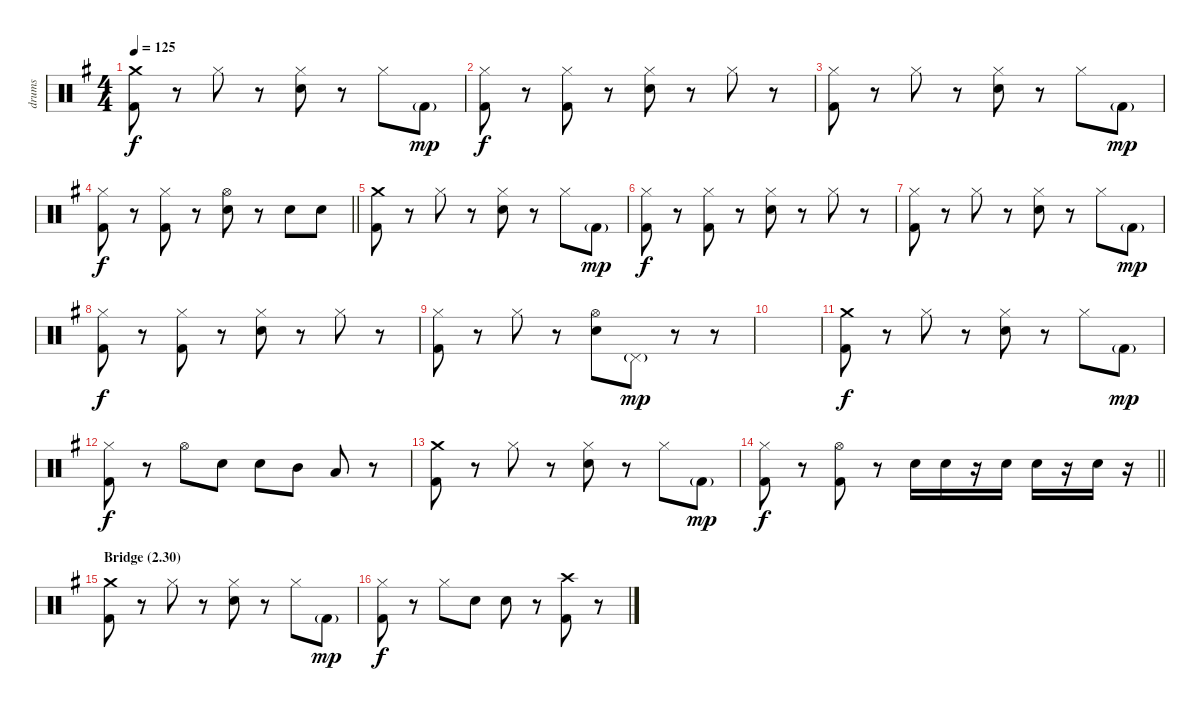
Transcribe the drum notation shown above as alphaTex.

\track ("drums" "drums") {instrument percussion}
\staff {score}
\articulation defaults
\ts (4 4)
\tempo 125
\clef neutral
\ks g
("Crash medium (hit)" "Kick (hit) 2").8{dy f} r.8 "Hi-Hat (closed)".8 r.8 ("Hi-Hat (closed)" "Electric Snare (hit)").8 r.8 "Hi-Hat (closed)".8 "Kick (hit) 2"{g}.8{dy mp} |
("Hi-Hat (closed)" "Kick (hit) 2").8{dy f} r.8 ("Hi-Hat (closed)" "Kick (hit) 2").8 r.8 ("Hi-Hat (closed)" "Electric Snare (hit)").8 r.8 "Hi-Hat (closed)".8 r.8 |
("Hi-Hat (closed)" "Kick (hit) 2").8 r.8 "Hi-Hat (closed)".8 r.8 ("Hi-Hat (closed)" "Electric Snare (hit)").8 r.8 "Hi-Hat (closed)".8 "Kick (hit) 2"{g}.8{dy mp} |
\barLineRight lightlight
("Hi-Hat (closed)" "Kick (hit) 2").8{dy f} r.8 ("Hi-Hat (closed)" "Kick (hit) 2").8 r.8 ("Hi-Hat (open)" "Electric Snare (hit)").8 r.8 "Electric Snare (hit)".8 "Electric Snare (hit)".8 |
("Crash medium (hit)" "Kick (hit) 2").8 r.8 "Hi-Hat (closed)".8 r.8 ("Hi-Hat (closed)" "Electric Snare (hit)").8 r.8 "Hi-Hat (closed)".8 "Kick (hit) 2"{g}.8{dy mp} |
("Hi-Hat (closed)" "Kick (hit) 2").8{dy f} r.8 ("Hi-Hat (closed)" "Kick (hit) 2").8 r.8 ("Hi-Hat (closed)" "Electric Snare (hit)").8 r.8 "Hi-Hat (closed)".8 r.8 |
("Hi-Hat (closed)" "Kick (hit) 2").8 r.8 "Hi-Hat (closed)".8 r.8 ("Hi-Hat (closed)" "Electric Snare (hit)").8 r.8 "Hi-Hat (closed)".8 "Kick (hit) 2"{g}.8{dy mp} |
("Hi-Hat (closed)" "Kick (hit) 2").8{dy f} r.8 ("Hi-Hat (closed)" "Kick (hit) 2").8 r.8 ("Hi-Hat (closed)" "Electric Snare (hit)").8 r.8 "Hi-Hat (closed)".8 r.8 |
("Hi-Hat (closed)" "Kick (hit) 2").8 r.8 "Hi-Hat (closed)".8 r.8 ("Hi-Hat (open)" "Electric Snare (hit)").8 "Pedal Hi-Hat (hit)"{g}.8{dy mp} r.8 r.8 |
|
("Crash medium (hit)" "Kick (hit) 2").8{dy f} r.8 "Hi-Hat (closed)".8 r.8 ("Hi-Hat (closed)" "Electric Snare (hit)").8 r.8 "Hi-Hat (closed)".8 "Kick (hit) 2"{g}.8{dy mp} |
("Hi-Hat (closed)" "Kick (hit) 2").8{dy f} r.8 "Hi-Hat (open)".8 "Electric Snare (hit)".8 "Electric Snare (hit)".8 "Mid Tom (hit)".8 "Low Tom (hit)".8 r.8 |
("Crash medium (hit)" "Kick (hit) 2").8 r.8 "Hi-Hat (closed)".8 r.8 ("Hi-Hat (closed)" "Electric Snare (hit)").8 r.8 "Hi-Hat (closed)".8 "Kick (hit) 2"{g}.8{dy mp} |
\barLineRight lightlight
("Hi-Hat (closed)" "Kick (hit) 2").8{dy f} r.8 ("Hi-Hat (open)" "Kick (hit) 2").8 r.8 "Electric Snare (hit)".16 "Electric Snare (hit)".16 r.16 "Electric Snare (hit)".16 "Electric Snare (hit)".16 r.16 "Electric Snare (hit)".16 r.16 |
\section ("" "Bridge (2.30)")
("Crash medium (hit)" "Kick (hit) 2").8 r.8 "Hi-Hat (closed)".8 r.8 ("Hi-Hat (closed)" "Electric Snare (hit)").8 r.8 "Hi-Hat (closed)".8 "Kick (hit) 2"{g}.8{dy mp} |
("Hi-Hat (closed)" "Kick (hit) 2").8{dy f} r.8 "Hi-Hat (closed)".8 "Electric Snare (hit)".8 "Electric Snare (hit)".8 r.8 ("Crash high (hit)" "Kick (hit) 2").8 r.8
